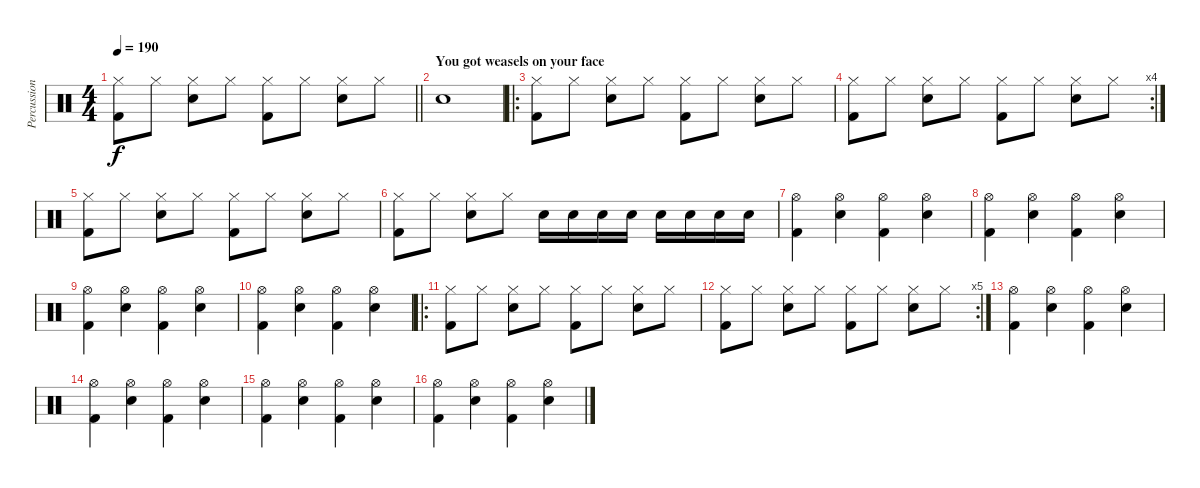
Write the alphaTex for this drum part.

\track ("Percussion" "Percussion") {instrument percussion}
\staff {score}
\articulation defaults
\ts (4 4)
\tempo 190
\clef neutral
\barLineRight lightlight
\ks c
("Hi-Hat (closed)" "Kick (hit) 2").8{dy f} "Hi-Hat (closed)".8 ("Hi-Hat (closed)" "Snare (hit) 2").8 "Hi-Hat (closed)".8 ("Hi-Hat (closed)" "Kick (hit) 2").8 "Hi-Hat (closed)".8 ("Hi-Hat (closed)" "Snare (hit) 2").8 "Hi-Hat (closed)".8 |
\section ("" "You got weasels on your face")
"Snare (hit) 2".1 |
\ro
("Hi-Hat (closed)" "Kick (hit) 2").8 "Hi-Hat (closed)".8 ("Hi-Hat (closed)" "Snare (hit) 2").8 "Hi-Hat (closed)".8 ("Hi-Hat (closed)" "Kick (hit) 2").8 "Hi-Hat (closed)".8 ("Hi-Hat (closed)" "Snare (hit) 2").8 "Hi-Hat (closed)".8 |
\rc 4
("Hi-Hat (closed)" "Kick (hit) 2").8 "Hi-Hat (closed)".8 ("Hi-Hat (closed)" "Snare (hit) 2").8 "Hi-Hat (closed)".8 ("Hi-Hat (closed)" "Kick (hit) 2").8 "Hi-Hat (closed)".8 ("Hi-Hat (closed)" "Snare (hit) 2").8 "Hi-Hat (closed)".8 |
("Hi-Hat (closed)" "Kick (hit) 2").8 "Hi-Hat (closed)".8 ("Hi-Hat (closed)" "Snare (hit) 2").8 "Hi-Hat (closed)".8 ("Hi-Hat (closed)" "Kick (hit) 2").8 "Hi-Hat (closed)".8 ("Hi-Hat (closed)" "Snare (hit) 2").8 "Hi-Hat (closed)".8 |
("Hi-Hat (closed)" "Kick (hit) 2").8 "Hi-Hat (closed)".8 ("Hi-Hat (closed)" "Snare (hit) 2").8 "Hi-Hat (closed)".8 "Snare (hit) 2".16 "Snare (hit) 2".16 "Snare (hit) 2".16 "Snare (hit) 2".16 "Snare (hit) 2".16 "Snare (hit) 2".16 "Snare (hit) 2".16 "Snare (hit) 2".16 |
("Hi-Hat (open)" "Kick (hit) 2").4 ("Hi-Hat (open)" "Snare (hit) 2").4 ("Hi-Hat (open)" "Kick (hit) 2").4 ("Hi-Hat (open)" "Snare (hit) 2").4 |
("Hi-Hat (open)" "Kick (hit) 2").4 ("Hi-Hat (open)" "Snare (hit) 2").4 ("Hi-Hat (open)" "Kick (hit) 2").4 ("Hi-Hat (open)" "Snare (hit) 2").4 |
("Hi-Hat (open)" "Kick (hit) 2").4 ("Hi-Hat (open)" "Snare (hit) 2").4 ("Hi-Hat (open)" "Kick (hit) 2").4 ("Hi-Hat (open)" "Snare (hit) 2").4 |
("Hi-Hat (open)" "Kick (hit) 2").4 ("Hi-Hat (open)" "Snare (hit) 2").4 ("Hi-Hat (open)" "Kick (hit) 2").4 ("Hi-Hat (open)" "Snare (hit) 2").4 |
\ro
("Hi-Hat (closed)" "Kick (hit) 2").8 "Hi-Hat (closed)".8 ("Hi-Hat (closed)" "Snare (hit) 2").8 "Hi-Hat (closed)".8 ("Hi-Hat (closed)" "Kick (hit) 2").8 "Hi-Hat (closed)".8 ("Hi-Hat (closed)" "Snare (hit) 2").8 "Hi-Hat (closed)".8 |
\rc 5
("Hi-Hat (closed)" "Kick (hit) 2").8 "Hi-Hat (closed)".8 ("Hi-Hat (closed)" "Snare (hit) 2").8 "Hi-Hat (closed)".8 ("Hi-Hat (closed)" "Kick (hit) 2").8 "Hi-Hat (closed)".8 ("Hi-Hat (closed)" "Snare (hit) 2").8 "Hi-Hat (closed)".8 |
("Hi-Hat (open)" "Kick (hit) 2").4 ("Hi-Hat (open)" "Snare (hit) 2").4 ("Hi-Hat (open)" "Kick (hit) 2").4 ("Hi-Hat (open)" "Snare (hit) 2").4 |
("Hi-Hat (open)" "Kick (hit) 2").4 ("Hi-Hat (open)" "Snare (hit) 2").4 ("Hi-Hat (open)" "Kick (hit) 2").4 ("Hi-Hat (open)" "Snare (hit) 2").4 |
("Hi-Hat (open)" "Kick (hit) 2").4 ("Hi-Hat (open)" "Snare (hit) 2").4 ("Hi-Hat (open)" "Kick (hit) 2").4 ("Hi-Hat (open)" "Snare (hit) 2").4 |
("Hi-Hat (open)" "Kick (hit) 2").4 ("Hi-Hat (open)" "Snare (hit) 2").4 ("Hi-Hat (open)" "Kick (hit) 2").4 ("Hi-Hat (open)" "Snare (hit) 2").4
